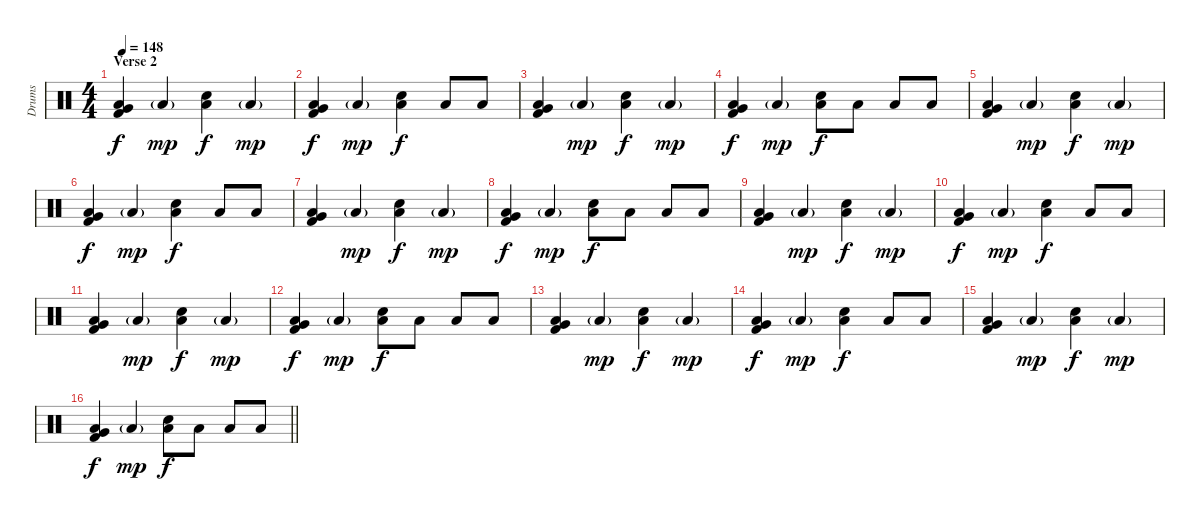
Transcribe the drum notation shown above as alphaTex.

\track ("Drums" "Drums") {instrument percussion}
\staff {score}
\articulation defaults
\ts (4 4)
\section ("" "Verse 2")
\tempo 148
\clef neutral
\ks c
("Kick (hit) 2" "Very Low Tom (hit)" "Low Floor Tom (hit)").4{dy f} "Low Floor Tom (hit)"{g}.4{dy mp} ("Electric Snare (hit)" "Low Floor Tom (hit)").4{dy f} "Low Floor Tom (hit)"{g}.4{dy mp} |
("Kick (hit) 2" "Very Low Tom (hit)" "Low Floor Tom (hit)").4{dy f} "Low Floor Tom (hit)"{g}.4{dy mp} ("Electric Snare (hit)" "Low Floor Tom (hit)").4{dy f} "Low Floor Tom (hit)".8 "Low Floor Tom (hit)".8 |
("Kick (hit) 2" "Very Low Tom (hit)" "Low Floor Tom (hit)").4 "Low Floor Tom (hit)"{g}.4{dy mp} ("Electric Snare (hit)" "Low Floor Tom (hit)").4{dy f} "Low Floor Tom (hit)"{g}.4{dy mp} |
("Kick (hit) 2" "Very Low Tom (hit)" "Low Floor Tom (hit)").4{dy f} "Low Floor Tom (hit)"{g}.4{dy mp} ("Electric Snare (hit)" "Low Floor Tom (hit)").8{dy f} "Low Floor Tom (hit)".8 "Low Floor Tom (hit)".8 "Low Floor Tom (hit)".8 |
("Kick (hit) 2" "Very Low Tom (hit)" "Low Floor Tom (hit)").4 "Low Floor Tom (hit)"{g}.4{dy mp} ("Electric Snare (hit)" "Low Floor Tom (hit)").4{dy f} "Low Floor Tom (hit)"{g}.4{dy mp} |
("Kick (hit) 2" "Very Low Tom (hit)" "Low Floor Tom (hit)").4{dy f} "Low Floor Tom (hit)"{g}.4{dy mp} ("Electric Snare (hit)" "Low Floor Tom (hit)").4{dy f} "Low Floor Tom (hit)".8 "Low Floor Tom (hit)".8 |
("Kick (hit) 2" "Very Low Tom (hit)" "Low Floor Tom (hit)").4 "Low Floor Tom (hit)"{g}.4{dy mp} ("Electric Snare (hit)" "Low Floor Tom (hit)").4{dy f} "Low Floor Tom (hit)"{g}.4{dy mp} |
("Kick (hit) 2" "Very Low Tom (hit)" "Low Floor Tom (hit)").4{dy f} "Low Floor Tom (hit)"{g}.4{dy mp} ("Electric Snare (hit)" "Low Floor Tom (hit)").8{dy f} "Low Floor Tom (hit)".8 "Low Floor Tom (hit)".8 "Low Floor Tom (hit)".8 |
("Kick (hit) 2" "Very Low Tom (hit)" "Low Floor Tom (hit)").4 "Low Floor Tom (hit)"{g}.4{dy mp} ("Electric Snare (hit)" "Low Floor Tom (hit)").4{dy f} "Low Floor Tom (hit)"{g}.4{dy mp} |
("Kick (hit) 2" "Very Low Tom (hit)" "Low Floor Tom (hit)").4{dy f} "Low Floor Tom (hit)"{g}.4{dy mp} ("Electric Snare (hit)" "Low Floor Tom (hit)").4{dy f} "Low Floor Tom (hit)".8 "Low Floor Tom (hit)".8 |
("Kick (hit) 2" "Very Low Tom (hit)" "Low Floor Tom (hit)").4 "Low Floor Tom (hit)"{g}.4{dy mp} ("Electric Snare (hit)" "Low Floor Tom (hit)").4{dy f} "Low Floor Tom (hit)"{g}.4{dy mp} |
("Kick (hit) 2" "Very Low Tom (hit)" "Low Floor Tom (hit)").4{dy f} "Low Floor Tom (hit)"{g}.4{dy mp} ("Electric Snare (hit)" "Low Floor Tom (hit)").8{dy f} "Low Floor Tom (hit)".8 "Low Floor Tom (hit)".8 "Low Floor Tom (hit)".8 |
("Kick (hit) 2" "Very Low Tom (hit)" "Low Floor Tom (hit)").4 "Low Floor Tom (hit)"{g}.4{dy mp} ("Electric Snare (hit)" "Low Floor Tom (hit)").4{dy f} "Low Floor Tom (hit)"{g}.4{dy mp} |
("Kick (hit) 2" "Very Low Tom (hit)" "Low Floor Tom (hit)").4{dy f} "Low Floor Tom (hit)"{g}.4{dy mp} ("Electric Snare (hit)" "Low Floor Tom (hit)").4{dy f} "Low Floor Tom (hit)".8 "Low Floor Tom (hit)".8 |
("Kick (hit) 2" "Very Low Tom (hit)" "Low Floor Tom (hit)").4 "Low Floor Tom (hit)"{g}.4{dy mp} ("Electric Snare (hit)" "Low Floor Tom (hit)").4{dy f} "Low Floor Tom (hit)"{g}.4{dy mp} |
\barLineRight lightlight
("Kick (hit) 2" "Very Low Tom (hit)" "Low Floor Tom (hit)").4{dy f} "Low Floor Tom (hit)"{g}.4{dy mp} ("Electric Snare (hit)" "Low Floor Tom (hit)").8{dy f} "Low Floor Tom (hit)".8 "Low Floor Tom (hit)".8 "Low Floor Tom (hit)".8
